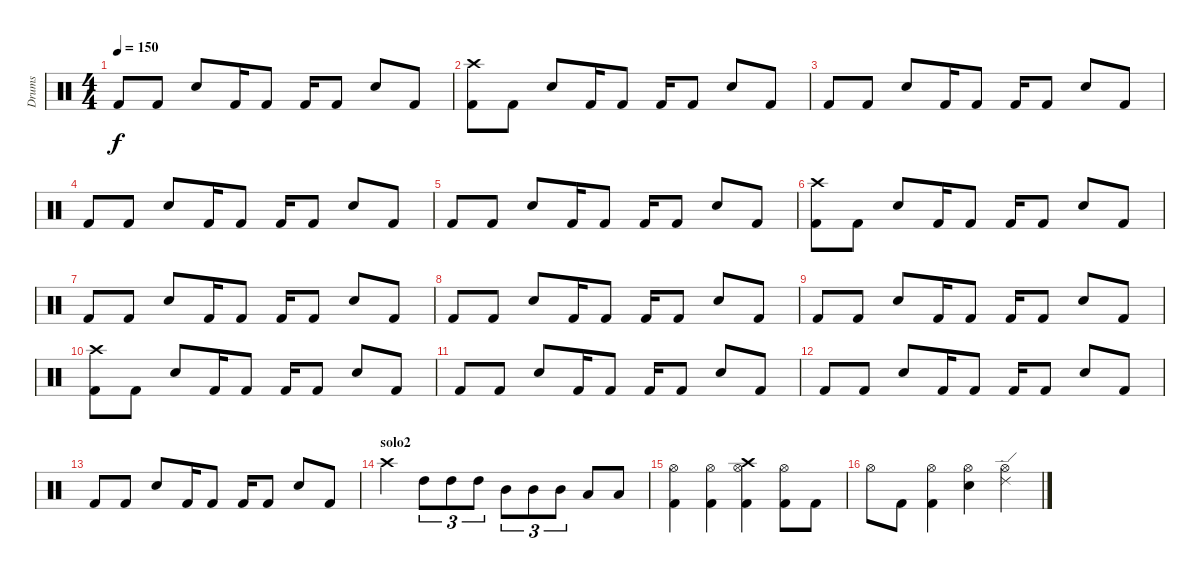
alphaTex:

\track ("Drums" "Drums") {instrument percussion}
\staff {score}
\articulation defaults
\ts (4 4)
\tempo 150
\clef neutral
\ks c "Kick (hit) 2".8{dy f} "Kick (hit) 2".8 "Snare (hit) 2".8 "Kick (hit) 2".16 "Kick (hit) 2".8 "Kick (hit) 2".16 "Kick (hit) 2".8 "Snare (hit) 2".8 "Kick (hit) 2".8
|
("Kick (hit) 2" "Crash high (hit)").8 "Kick (hit) 2".8 "Snare (hit) 2".8 "Kick (hit) 2".16 "Kick (hit) 2".8 "Kick (hit) 2".16 "Kick (hit) 2".8 "Snare (hit) 2".8 "Kick (hit) 2".8 |
"Kick (hit) 2".8 "Kick (hit) 2".8 "Snare (hit) 2".8 "Kick (hit) 2".16 "Kick (hit) 2".8 "Kick (hit) 2".16 "Kick (hit) 2".8 "Snare (hit) 2".8 "Kick (hit) 2".8 |
"Kick (hit) 2".8 "Kick (hit) 2".8 "Snare (hit) 2".8 "Kick (hit) 2".16 "Kick (hit) 2".8 "Kick (hit) 2".16 "Kick (hit) 2".8 "Snare (hit) 2".8 "Kick (hit) 2".8 |
"Kick (hit) 2".8 "Kick (hit) 2".8 "Snare (hit) 2".8 "Kick (hit) 2".16 "Kick (hit) 2".8 "Kick (hit) 2".16 "Kick (hit) 2".8 "Snare (hit) 2".8 "Kick (hit) 2".8 |
("Kick (hit) 2" "Crash high (hit)").8 "Kick (hit) 2".8 "Snare (hit) 2".8 "Kick (hit) 2".16 "Kick (hit) 2".8 "Kick (hit) 2".16 "Kick (hit) 2".8 "Snare (hit) 2".8 "Kick (hit) 2".8 |
"Kick (hit) 2".8 "Kick (hit) 2".8 "Snare (hit) 2".8 "Kick (hit) 2".16 "Kick (hit) 2".8 "Kick (hit) 2".16 "Kick (hit) 2".8 "Snare (hit) 2".8 "Kick (hit) 2".8 |
"Kick (hit) 2".8 "Kick (hit) 2".8 "Snare (hit) 2".8 "Kick (hit) 2".16 "Kick (hit) 2".8 "Kick (hit) 2".16 "Kick (hit) 2".8 "Snare (hit) 2".8 "Kick (hit) 2".8 |
"Kick (hit) 2".8 "Kick (hit) 2".8 "Snare (hit) 2".8 "Kick (hit) 2".16 "Kick (hit) 2".8 "Kick (hit) 2".16 "Kick (hit) 2".8 "Snare (hit) 2".8 "Kick (hit) 2".8 |
("Kick (hit) 2" "Crash high (hit)").8 "Kick (hit) 2".8 "Snare (hit) 2".8 "Kick (hit) 2".16 "Kick (hit) 2".8 "Kick (hit) 2".16 "Kick (hit) 2".8 "Snare (hit) 2".8 "Kick (hit) 2".8 |
"Kick (hit) 2".8 "Kick (hit) 2".8 "Snare (hit) 2".8 "Kick (hit) 2".16 "Kick (hit) 2".8 "Kick (hit) 2".16 "Kick (hit) 2".8 "Snare (hit) 2".8 "Kick (hit) 2".8 |
"Kick (hit) 2".8 "Kick (hit) 2".8 "Snare (hit) 2".8 "Kick (hit) 2".16 "Kick (hit) 2".8 "Kick (hit) 2".16 "Kick (hit) 2".8 "Snare (hit) 2".8 "Kick (hit) 2".8 |
"Kick (hit) 2".8 "Kick (hit) 2".8 "Snare (hit) 2".8 "Kick (hit) 2".16 "Kick (hit) 2".8 "Kick (hit) 2".16 "Kick (hit) 2".8 "Snare (hit) 2".8 "Kick (hit) 2".8 |
\section ("" "solo2")
"Crash high (hit)".4 "High Tom (hit)".8{tu (3 2)} "High Tom (hit)".8{tu (3 2)} "High Tom (hit)".8{tu (3 2)} "Mid Tom (hit)".8{tu (3 2)} "Mid Tom (hit)".8{tu (3 2)} "Mid Tom (hit)".8{tu (3 2)} "Low Tom (hit)".8 "Low Tom (hit)".8 |
("Hi-Hat (open)" "Kick (hit) 2").4 ("Hi-Hat (open)" "Kick (hit) 2").4 ("Crash high (hit)" "Hi-Hat (open)" "Kick (hit) 2").4 ("Hi-Hat (open)" "Kick (hit) 2").8 "Kick (hit) 2".8 |
"Hi-Hat (open)".8 "Kick (hit) 2".8 ("Hi-Hat (open)" "Kick (hit) 2").4 ("Hi-Hat (open)" "Snare (hit) 2").4 ("Ride (edge) 2" "Hi-Hat (open)").4
